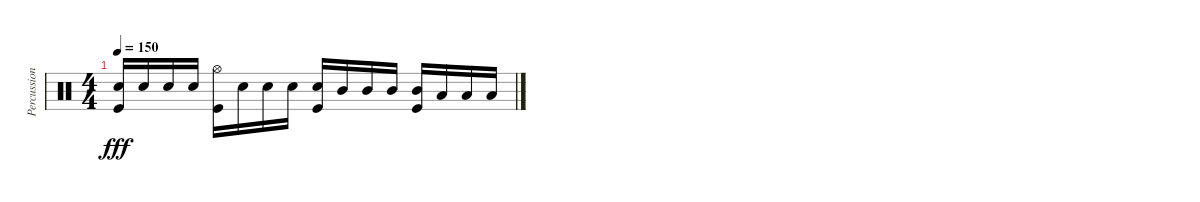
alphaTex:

\track ("Percussion" "Percussion") {instrument percussion}
\staff {score}
\articulation defaults
\ts (4 4)
\tempo 150
\clef neutral
\ks c
("Electric Snare (hit)" "Kick (hit)").16{dy fff} "Electric Snare (hit)".16 "Electric Snare (hit)".16 "Electric Snare (hit)".16 ("Hi-Hat (open)" "Kick (hit)").16 "Electric Snare (hit)".16 "Electric Snare (hit)".16 "Electric Snare (hit)".16 ("Electric Snare (hit)" "Kick (hit)").16 "Mid Tom (hit)".16 "Mid Tom (hit)".16 "Mid Tom (hit)".16 ("Mid Tom (hit)" "Kick (hit)").16 "Low Tom (hit)".16 "Low Tom (hit)".16 "Low Tom (hit)".16
